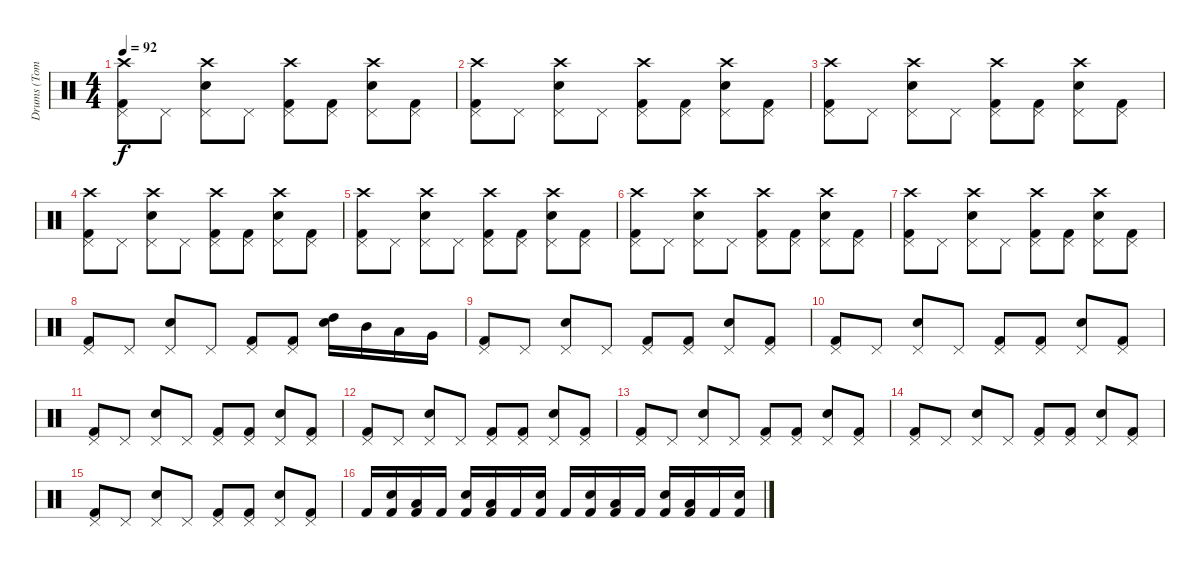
\track ("Drums (Tommy?)" "Drums (Tom") {instrument percussion bank 7}
\staff {score}
\articulation defaults
\ts (4 4)
\tempo 92
\clef neutral
\ks c
("Crash high (hit)" "Pedal Hi-Hat (hit)" "Kick (hit) 2").8{dy f} "Pedal Hi-Hat (hit)".8 ("Crash high (hit)" "Pedal Hi-Hat (hit)" "Electric Snare (hit)").8 "Pedal Hi-Hat (hit)".8 ("Crash high (hit)" "Pedal Hi-Hat (hit)" "Kick (hit) 2").8 ("Pedal Hi-Hat (hit)" "Kick (hit) 2").8 ("Crash high (hit)" "Pedal Hi-Hat (hit)" "Electric Snare (hit)").8 ("Pedal Hi-Hat (hit)" "Kick (hit) 2").8 |
("Crash high (hit)" "Pedal Hi-Hat (hit)" "Kick (hit) 2").8 "Pedal Hi-Hat (hit)".8 ("Crash high (hit)" "Pedal Hi-Hat (hit)" "Electric Snare (hit)").8 "Pedal Hi-Hat (hit)".8 ("Crash high (hit)" "Pedal Hi-Hat (hit)" "Kick (hit) 2").8 ("Pedal Hi-Hat (hit)" "Kick (hit) 2").8 ("Crash high (hit)" "Pedal Hi-Hat (hit)" "Electric Snare (hit)").8 ("Pedal Hi-Hat (hit)" "Kick (hit) 2").8 |
("Crash high (hit)" "Pedal Hi-Hat (hit)" "Kick (hit) 2").8 "Pedal Hi-Hat (hit)".8 ("Crash high (hit)" "Pedal Hi-Hat (hit)" "Electric Snare (hit)").8 "Pedal Hi-Hat (hit)".8 ("Crash high (hit)" "Pedal Hi-Hat (hit)" "Kick (hit) 2").8 ("Pedal Hi-Hat (hit)" "Kick (hit) 2").8 ("Crash high (hit)" "Pedal Hi-Hat (hit)" "Electric Snare (hit)").8 ("Pedal Hi-Hat (hit)" "Kick (hit) 2").8 |
("Crash high (hit)" "Pedal Hi-Hat (hit)" "Kick (hit) 2").8 "Pedal Hi-Hat (hit)".8 ("Crash high (hit)" "Pedal Hi-Hat (hit)" "Electric Snare (hit)").8 "Pedal Hi-Hat (hit)".8 ("Crash high (hit)" "Pedal Hi-Hat (hit)" "Kick (hit) 2").8 ("Pedal Hi-Hat (hit)" "Kick (hit) 2").8 ("Crash high (hit)" "Pedal Hi-Hat (hit)" "Electric Snare (hit)").8 ("Pedal Hi-Hat (hit)" "Kick (hit) 2").8 |
("Crash high (hit)" "Pedal Hi-Hat (hit)" "Kick (hit) 2").8 "Pedal Hi-Hat (hit)".8 ("Crash high (hit)" "Pedal Hi-Hat (hit)" "Electric Snare (hit)").8 "Pedal Hi-Hat (hit)".8 ("Crash high (hit)" "Pedal Hi-Hat (hit)" "Kick (hit) 2").8 ("Pedal Hi-Hat (hit)" "Kick (hit) 2").8 ("Crash high (hit)" "Pedal Hi-Hat (hit)" "Electric Snare (hit)").8 ("Pedal Hi-Hat (hit)" "Kick (hit) 2").8 |
("Crash high (hit)" "Pedal Hi-Hat (hit)" "Kick (hit) 2").8 "Pedal Hi-Hat (hit)".8 ("Crash high (hit)" "Pedal Hi-Hat (hit)" "Electric Snare (hit)").8 "Pedal Hi-Hat (hit)".8 ("Crash high (hit)" "Pedal Hi-Hat (hit)" "Kick (hit) 2").8 ("Pedal Hi-Hat (hit)" "Kick (hit) 2").8 ("Crash high (hit)" "Pedal Hi-Hat (hit)" "Electric Snare (hit)").8 ("Pedal Hi-Hat (hit)" "Kick (hit) 2").8 |
("Crash high (hit)" "Pedal Hi-Hat (hit)" "Kick (hit) 2").8 "Pedal Hi-Hat (hit)".8 ("Crash high (hit)" "Pedal Hi-Hat (hit)" "Electric Snare (hit)").8 "Pedal Hi-Hat (hit)".8 ("Crash high (hit)" "Pedal Hi-Hat (hit)" "Kick (hit) 2").8 ("Pedal Hi-Hat (hit)" "Kick (hit) 2").8 ("Crash high (hit)" "Pedal Hi-Hat (hit)" "Electric Snare (hit)").8 ("Pedal Hi-Hat (hit)" "Kick (hit) 2").8 |
("Pedal Hi-Hat (hit)" "Kick (hit) 2").8 "Pedal Hi-Hat (hit)".8 ("Pedal Hi-Hat (hit)" "Electric Snare (hit)").8 "Pedal Hi-Hat (hit)".8 ("Pedal Hi-Hat (hit)" "Kick (hit) 2").8 ("Pedal Hi-Hat (hit)" "Kick (hit) 2").8 ("High Tom (hit)" "Electric Snare (hit)").16 "Mid Tom (hit)".16 "Low Tom (hit)".16 "Very Low Tom (hit)".16 |
("Pedal Hi-Hat (hit)" "Kick (hit) 2").8 "Pedal Hi-Hat (hit)".8 ("Pedal Hi-Hat (hit)" "Electric Snare (hit)").8 "Pedal Hi-Hat (hit)".8 ("Pedal Hi-Hat (hit)" "Kick (hit) 2").8 ("Pedal Hi-Hat (hit)" "Kick (hit) 2").8 ("Pedal Hi-Hat (hit)" "Electric Snare (hit)").8 ("Pedal Hi-Hat (hit)" "Kick (hit) 2").8 |
("Pedal Hi-Hat (hit)" "Kick (hit) 2").8 "Pedal Hi-Hat (hit)".8 ("Pedal Hi-Hat (hit)" "Electric Snare (hit)").8 "Pedal Hi-Hat (hit)".8 ("Pedal Hi-Hat (hit)" "Kick (hit) 2").8 ("Pedal Hi-Hat (hit)" "Kick (hit) 2").8 ("Pedal Hi-Hat (hit)" "Electric Snare (hit)").8 ("Pedal Hi-Hat (hit)" "Kick (hit) 2").8 |
("Pedal Hi-Hat (hit)" "Kick (hit) 2").8 "Pedal Hi-Hat (hit)".8 ("Pedal Hi-Hat (hit)" "Electric Snare (hit)").8 "Pedal Hi-Hat (hit)".8 ("Pedal Hi-Hat (hit)" "Kick (hit) 2").8 ("Pedal Hi-Hat (hit)" "Kick (hit) 2").8 ("Pedal Hi-Hat (hit)" "Electric Snare (hit)").8 ("Pedal Hi-Hat (hit)" "Kick (hit) 2").8 |
("Pedal Hi-Hat (hit)" "Kick (hit) 2").8 "Pedal Hi-Hat (hit)".8 ("Pedal Hi-Hat (hit)" "Electric Snare (hit)").8 "Pedal Hi-Hat (hit)".8 ("Pedal Hi-Hat (hit)" "Kick (hit) 2").8 ("Pedal Hi-Hat (hit)" "Kick (hit) 2").8 ("Pedal Hi-Hat (hit)" "Electric Snare (hit)").8 ("Pedal Hi-Hat (hit)" "Kick (hit) 2").8 |
("Pedal Hi-Hat (hit)" "Kick (hit) 2").8 "Pedal Hi-Hat (hit)".8 ("Pedal Hi-Hat (hit)" "Electric Snare (hit)").8 "Pedal Hi-Hat (hit)".8 ("Pedal Hi-Hat (hit)" "Kick (hit) 2").8 ("Pedal Hi-Hat (hit)" "Kick (hit) 2").8 ("Pedal Hi-Hat (hit)" "Electric Snare (hit)").8 ("Pedal Hi-Hat (hit)" "Kick (hit) 2").8 |
("Pedal Hi-Hat (hit)" "Kick (hit) 2").8 "Pedal Hi-Hat (hit)".8 ("Pedal Hi-Hat (hit)" "Electric Snare (hit)").8 "Pedal Hi-Hat (hit)".8 ("Pedal Hi-Hat (hit)" "Kick (hit) 2").8 ("Pedal Hi-Hat (hit)" "Kick (hit) 2").8 ("Pedal Hi-Hat (hit)" "Electric Snare (hit)").8 ("Pedal Hi-Hat (hit)" "Kick (hit) 2").8 |
("Pedal Hi-Hat (hit)" "Kick (hit) 2").8 "Pedal Hi-Hat (hit)".8 ("Pedal Hi-Hat (hit)" "Electric Snare (hit)").8 "Pedal Hi-Hat (hit)".8 ("Pedal Hi-Hat (hit)" "Kick (hit) 2").8 ("Pedal Hi-Hat (hit)" "Kick (hit) 2").8 ("Pedal Hi-Hat (hit)" "Electric Snare (hit)").8 ("Pedal Hi-Hat (hit)" "Kick (hit) 2").8 |
"Kick (hit) 2".16 ("Electric Snare (hit)" "Kick (hit) 2").16 ("Low Tom (hit)" "Kick (hit) 2").16 "Kick (hit) 2".16 ("Electric Snare (hit)" "Kick (hit) 2").16 ("Low Tom (hit)" "Kick (hit) 2").16 "Kick (hit) 2".16 ("Electric Snare (hit)" "Kick (hit) 2").16 "Kick (hit) 2".16 ("Electric Snare (hit)" "Kick (hit) 2").16 ("Low Tom (hit)" "Kick (hit) 2").16 "Kick (hit) 2".16 ("Electric Snare (hit)" "Kick (hit) 2").16 ("Low Tom (hit)" "Kick (hit) 2").16 "Kick (hit) 2".16 ("Electric Snare (hit)" "Kick (hit) 2").16
